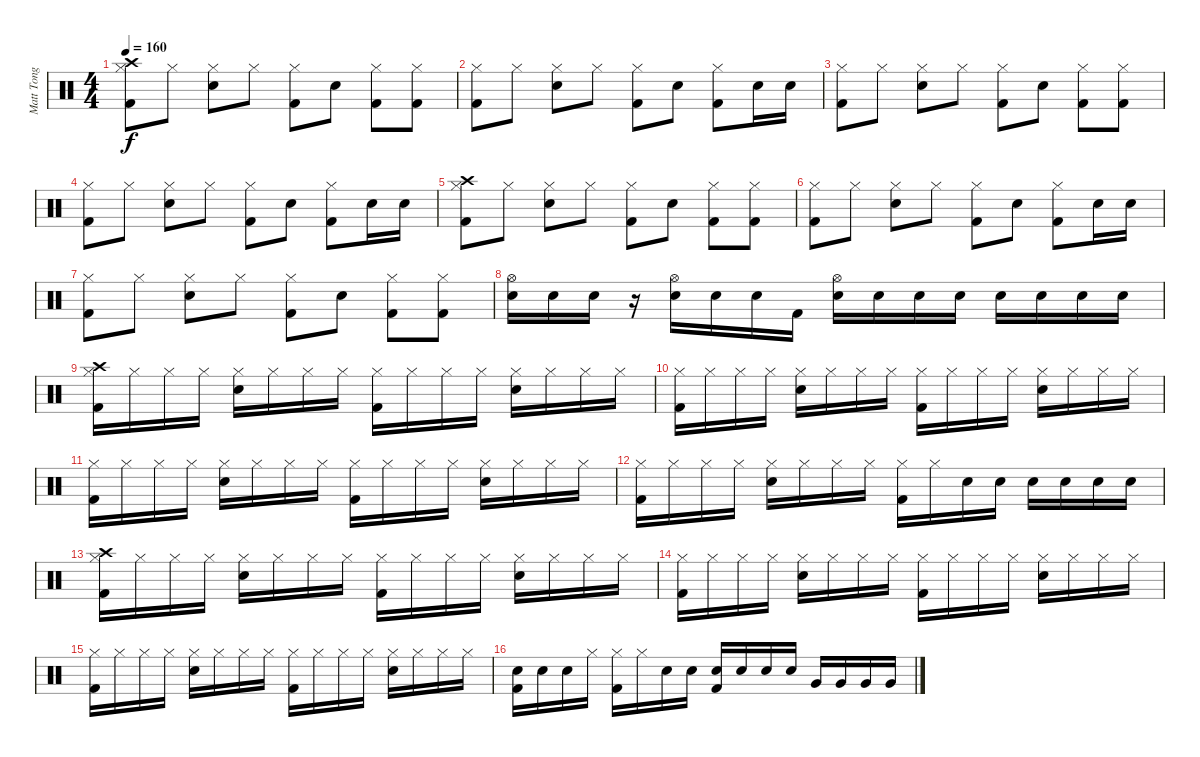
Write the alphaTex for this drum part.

\track ("Matt Tong" "Matt Tong") {instrument percussion}
\staff {score}
\articulation defaults
\ts (4 4)
\tempo 160
\clef neutral
\ks c
("Crash high (hit)" "Hi-Hat (closed)" "Kick (hit) 2").8{dy f} "Hi-Hat (closed)".8 ("Hi-Hat (closed)" "Electric Snare (hit)").8 "Hi-Hat (closed)".8 ("Hi-Hat (closed)" "Kick (hit) 2").8 "Electric Snare (hit)".8 ("Hi-Hat (closed)" "Kick (hit) 2").8 ("Hi-Hat (closed)" "Kick (hit) 2").8 |
("Hi-Hat (closed)" "Kick (hit) 2").8 "Hi-Hat (closed)".8 ("Hi-Hat (closed)" "Electric Snare (hit)").8 "Hi-Hat (closed)".8 ("Hi-Hat (closed)" "Kick (hit) 2").8 "Electric Snare (hit)".8 ("Hi-Hat (closed)" "Kick (hit) 2").8 "Electric Snare (hit)".16 "Electric Snare (hit)".16 |
("Hi-Hat (closed)" "Kick (hit) 2").8 "Hi-Hat (closed)".8 ("Hi-Hat (closed)" "Electric Snare (hit)").8 "Hi-Hat (closed)".8 ("Hi-Hat (closed)" "Kick (hit) 2").8 "Electric Snare (hit)".8 ("Hi-Hat (closed)" "Kick (hit) 2").8 ("Hi-Hat (closed)" "Kick (hit) 2").8 |
("Hi-Hat (closed)" "Kick (hit) 2").8 "Hi-Hat (closed)".8 ("Hi-Hat (closed)" "Electric Snare (hit)").8 "Hi-Hat (closed)".8 ("Hi-Hat (closed)" "Kick (hit) 2").8 "Electric Snare (hit)".8 ("Hi-Hat (closed)" "Kick (hit) 2").8 "Electric Snare (hit)".16 "Electric Snare (hit)".16 |
("Crash high (hit)" "Hi-Hat (closed)" "Kick (hit) 2").8 "Hi-Hat (closed)".8 ("Hi-Hat (closed)" "Electric Snare (hit)").8 "Hi-Hat (closed)".8 ("Hi-Hat (closed)" "Kick (hit) 2").8 "Electric Snare (hit)".8 ("Hi-Hat (closed)" "Kick (hit) 2").8 ("Hi-Hat (closed)" "Kick (hit) 2").8 |
("Hi-Hat (closed)" "Kick (hit) 2").8 "Hi-Hat (closed)".8 ("Hi-Hat (closed)" "Electric Snare (hit)").8 "Hi-Hat (closed)".8 ("Hi-Hat (closed)" "Kick (hit) 2").8 "Electric Snare (hit)".8 ("Hi-Hat (closed)" "Kick (hit) 2").8 "Electric Snare (hit)".16 "Electric Snare (hit)".16 |
("Hi-Hat (closed)" "Kick (hit) 2").8 "Hi-Hat (closed)".8 ("Hi-Hat (closed)" "Electric Snare (hit)").8 "Hi-Hat (closed)".8 ("Hi-Hat (closed)" "Kick (hit) 2").8 "Electric Snare (hit)".8 ("Hi-Hat (closed)" "Kick (hit) 2").8 ("Hi-Hat (closed)" "Kick (hit) 2").8 |
("Hi-Hat (open)" "Electric Snare (hit)").16 "Electric Snare (hit)".16 "Electric Snare (hit)".16 r.16 ("Hi-Hat (open)" "Electric Snare (hit)").16 "Electric Snare (hit)".16 "Electric Snare (hit)".16 "Kick (hit) 2".16 ("Hi-Hat (open)" "Electric Snare (hit)").16 "Electric Snare (hit)".16 "Electric Snare (hit)".16 "Electric Snare (hit)".16 "Electric Snare (hit)".16 "Electric Snare (hit)".16 "Electric Snare (hit)".16 "Electric Snare (hit)".16 |
("Crash high (hit)" "Hi-Hat (closed)" "Kick (hit) 2").16 "Hi-Hat (closed)".16 "Hi-Hat (closed)".16 "Hi-Hat (closed)".16 ("Hi-Hat (closed)" "Electric Snare (hit)").16 "Hi-Hat (closed)".16 "Hi-Hat (closed)".16 "Hi-Hat (closed)".16 ("Hi-Hat (closed)" "Kick (hit) 2").16 "Hi-Hat (closed)".16 "Hi-Hat (closed)".16 "Hi-Hat (closed)".16 ("Hi-Hat (closed)" "Electric Snare (hit)").16 "Hi-Hat (closed)".16 "Hi-Hat (closed)".16 "Hi-Hat (closed)".16 |
("Hi-Hat (closed)" "Kick (hit) 2").16 "Hi-Hat (closed)".16 "Hi-Hat (closed)".16 "Hi-Hat (closed)".16 ("Hi-Hat (closed)" "Electric Snare (hit)").16 "Hi-Hat (closed)".16 "Hi-Hat (closed)".16 "Hi-Hat (closed)".16 ("Hi-Hat (closed)" "Kick (hit) 2").16 "Hi-Hat (closed)".16 "Hi-Hat (closed)".16 "Hi-Hat (closed)".16 ("Hi-Hat (closed)" "Electric Snare (hit)").16 "Hi-Hat (closed)".16 "Hi-Hat (closed)".16 "Hi-Hat (closed)".16 |
("Hi-Hat (closed)" "Kick (hit) 2").16 "Hi-Hat (closed)".16 "Hi-Hat (closed)".16 "Hi-Hat (closed)".16 ("Hi-Hat (closed)" "Electric Snare (hit)").16 "Hi-Hat (closed)".16 "Hi-Hat (closed)".16 "Hi-Hat (closed)".16 ("Hi-Hat (closed)" "Kick (hit) 2").16 "Hi-Hat (closed)".16 "Hi-Hat (closed)".16 "Hi-Hat (closed)".16 ("Hi-Hat (closed)" "Electric Snare (hit)").16 "Hi-Hat (closed)".16 "Hi-Hat (closed)".16 "Hi-Hat (closed)".16 |
("Hi-Hat (closed)" "Kick (hit) 2").16 "Hi-Hat (closed)".16 "Hi-Hat (closed)".16 "Hi-Hat (closed)".16 ("Hi-Hat (closed)" "Electric Snare (hit)").16 "Hi-Hat (closed)".16 "Hi-Hat (closed)".16 "Hi-Hat (closed)".16 ("Hi-Hat (closed)" "Kick (hit) 2").16 "Hi-Hat (closed)".16 "Electric Snare (hit)".16 "Electric Snare (hit)".16 "Electric Snare (hit)".16 "Electric Snare (hit)".16 "Electric Snare (hit)".16 "Electric Snare (hit)".16 |
("Crash high (hit)" "Hi-Hat (closed)" "Kick (hit) 2").16 "Hi-Hat (closed)".16 "Hi-Hat (closed)".16 "Hi-Hat (closed)".16 ("Hi-Hat (closed)" "Electric Snare (hit)").16 "Hi-Hat (closed)".16 "Hi-Hat (closed)".16 "Hi-Hat (closed)".16 ("Hi-Hat (closed)" "Kick (hit) 2").16 "Hi-Hat (closed)".16 "Hi-Hat (closed)".16 "Hi-Hat (closed)".16 ("Hi-Hat (closed)" "Electric Snare (hit)").16 "Hi-Hat (closed)".16 "Hi-Hat (closed)".16 "Hi-Hat (closed)".16 |
("Hi-Hat (closed)" "Kick (hit) 2").16 "Hi-Hat (closed)".16 "Hi-Hat (closed)".16 "Hi-Hat (closed)".16 ("Hi-Hat (closed)" "Electric Snare (hit)").16 "Hi-Hat (closed)".16 "Hi-Hat (closed)".16 "Hi-Hat (closed)".16 ("Hi-Hat (closed)" "Kick (hit) 2").16 "Hi-Hat (closed)".16 "Hi-Hat (closed)".16 "Hi-Hat (closed)".16 ("Hi-Hat (closed)" "Electric Snare (hit)").16 "Hi-Hat (closed)".16 "Hi-Hat (closed)".16 "Hi-Hat (closed)".16 |
("Hi-Hat (closed)" "Kick (hit) 2").16 "Hi-Hat (closed)".16 "Hi-Hat (closed)".16 "Hi-Hat (closed)".16 ("Hi-Hat (closed)" "Electric Snare (hit)").16 "Hi-Hat (closed)".16 "Hi-Hat (closed)".16 "Hi-Hat (closed)".16 ("Hi-Hat (closed)" "Kick (hit) 2").16 "Hi-Hat (closed)".16 "Hi-Hat (closed)".16 "Hi-Hat (closed)".16 ("Hi-Hat (closed)" "Electric Snare (hit)").16 "Hi-Hat (closed)".16 "Hi-Hat (closed)".16 "Hi-Hat (closed)".16 |
("Electric Snare (hit)" "Kick (hit) 2").16 "Electric Snare (hit)".16 "Electric Snare (hit)".16 "Hi-Hat (closed)".16 ("Hi-Hat (closed)" "Kick (hit) 2").16 "Hi-Hat (closed)".16 "Electric Snare (hit)".16 "Electric Snare (hit)".16 ("Electric Snare (hit)" "Kick (hit) 2").16 "Electric Snare (hit)".16 "Electric Snare (hit)".16 "Electric Snare (hit)".16 "Very Low Tom (hit)".16 "Very Low Tom (hit)".16 "Very Low Tom (hit)".16 "Very Low Tom (hit)".16
